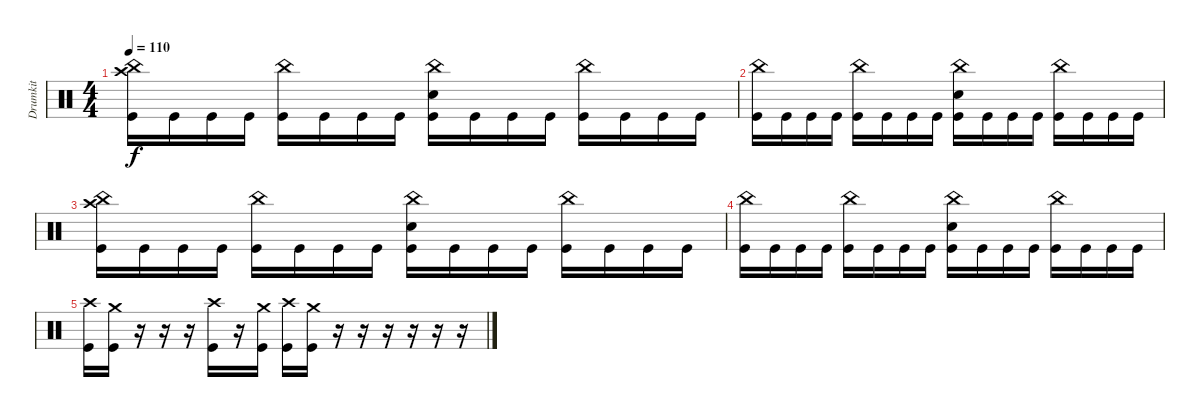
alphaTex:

\track ("Drumkit" "Drumkit") {instrument percussion}
\staff {score}
\articulation defaults
\ts (4 4)
\tempo 110
\clef neutral
\ks c
("Crash high (hit)" "China (hit)" "Kick (hit)").16{dy f} "Kick (hit)".16 "Kick (hit)".16 "Kick (hit)".16 ("China (hit)" "Kick (hit)").16 "Kick (hit)".16 "Kick (hit)".16 "Kick (hit)".16 ("China (hit)" "Snare (hit) 2" "Kick (hit)").16 "Kick (hit)".16 "Kick (hit)".16 "Kick (hit)".16 ("China (hit)" "Kick (hit)").16 "Kick (hit)".16 "Kick (hit)".16 "Kick (hit)".16 |
("China (hit)" "Kick (hit)").16 "Kick (hit)".16 "Kick (hit)".16 "Kick (hit)".16 ("China (hit)" "Kick (hit)").16 "Kick (hit)".16 "Kick (hit)".16 "Kick (hit)".16 ("China (hit)" "Snare (hit) 2" "Kick (hit)").16 "Kick (hit)".16 "Kick (hit)".16 "Kick (hit)".16 ("China (hit)" "Kick (hit)").16 "Kick (hit)".16 "Kick (hit)".16 "Kick (hit)".16 |
("Crash high (hit)" "China (hit)" "Kick (hit)").16 "Kick (hit)".16 "Kick (hit)".16 "Kick (hit)".16 ("China (hit)" "Kick (hit)").16 "Kick (hit)".16 "Kick (hit)".16 "Kick (hit)".16 ("China (hit)" "Snare (hit) 2" "Kick (hit)").16 "Kick (hit)".16 "Kick (hit)".16 "Kick (hit)".16 ("China (hit)" "Kick (hit)").16 "Kick (hit)".16 "Kick (hit)".16 "Kick (hit)".16 |
("China (hit)" "Kick (hit)").16 "Kick (hit)".16 "Kick (hit)".16 "Kick (hit)".16 ("China (hit)" "Kick (hit)").16 "Kick (hit)".16 "Kick (hit)".16 "Kick (hit)".16 ("China (hit)" "Snare (hit) 2" "Kick (hit)").16 "Kick (hit)".16 "Kick (hit)".16 "Kick (hit)".16 ("China (hit)" "Kick (hit)").16 "Kick (hit)".16 "Kick (hit)".16 "Kick (hit)".16 |
("Crash high (hit)" "Kick (hit)").16 ("Crash medium (hit)" "Kick (hit)").16 r.16 r.16 r.16 ("Crash high (hit)" "Kick (hit)").16 r.16 ("Crash medium (hit)" "Kick (hit)").16 ("Crash high (hit)" "Kick (hit)").16 ("Crash medium (hit)" "Kick (hit)").16 r.16 r.16 r.16 r.16 r.16 r.16
